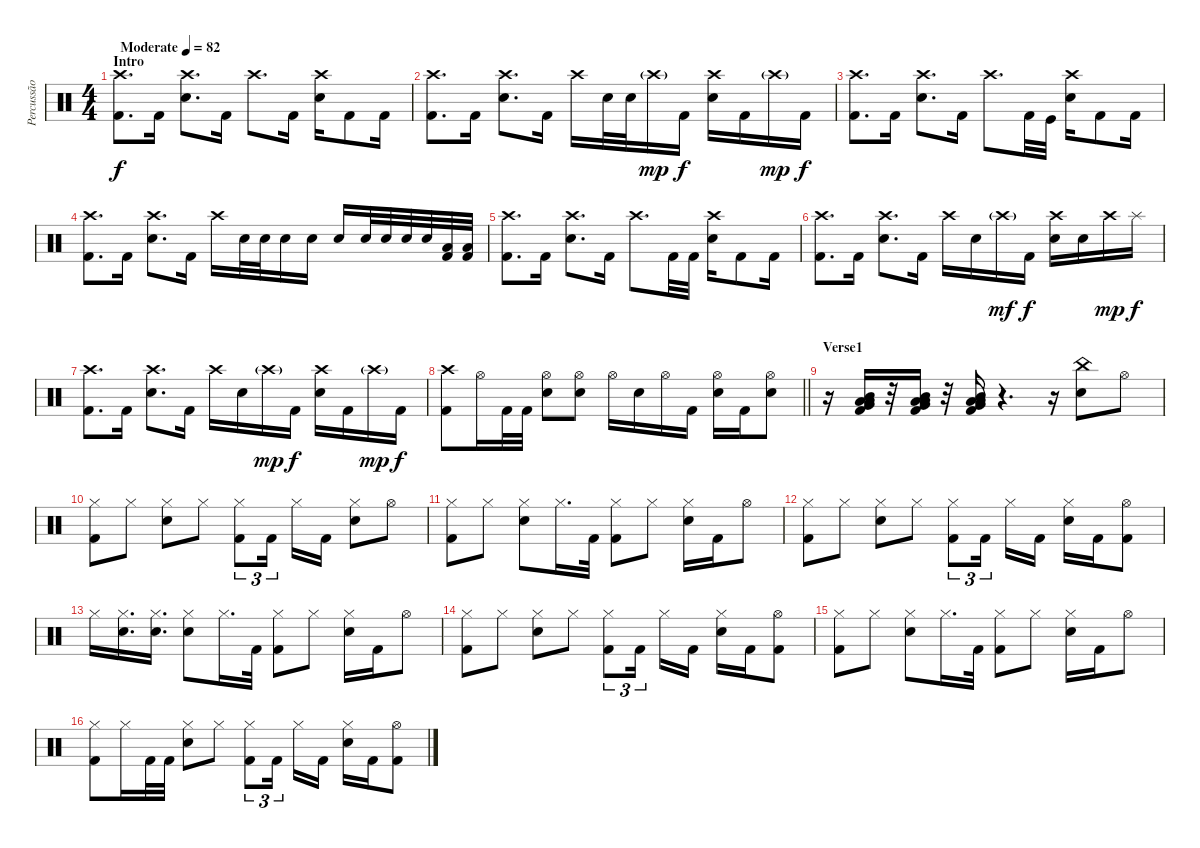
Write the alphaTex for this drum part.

\track ("Percussão" "Percussão") {instrument percussion}
\staff {score}
\articulation defaults
\ts (4 4)
\section ("" "Intro")
\tempo (82 "Moderate")
\clef neutral
\ks c
("Kick (hit) 2" "Crash high (hit)").8{d dy f} "Kick (hit) 2".16 ("Electric Snare (hit)" "Crash high (hit)").8{d} "Kick (hit) 2".16 "Crash high (hit)".8{d} "Kick (hit) 2".16 ("Electric Snare (hit)" "Crash high (hit)").16 "Kick (hit) 2".8 "Kick (hit) 2".16 |
("Kick (hit) 2" "Crash high (hit)").8{d} "Kick (hit) 2".16 ("Electric Snare (hit)" "Crash high (hit)").8{d} "Kick (hit) 2".16 "Crash high (hit)".16 "Electric Snare (hit)".32 "Electric Snare (hit)".32 "Crash high (hit)"{g}.16{dy mp} "Kick (hit) 2".16{dy f} ("Crash high (hit)" "Electric Snare (hit)").16 "Kick (hit) 2".16 "Crash high (hit)"{g}.16{dy mp} "Kick (hit) 2".16{dy f} |
("Kick (hit) 2" "Crash high (hit)").8{d} "Kick (hit) 2".16 ("Electric Snare (hit)" "Crash high (hit)").8{d} "Kick (hit) 2".16 "Crash high (hit)".8{d} "Kick (hit) 2".32 "Kick (hit)".32 ("Electric Snare (hit)" "Crash high (hit)").16 "Kick (hit) 2".8 "Kick (hit) 2".16 |
("Kick (hit) 2" "Crash high (hit)").8{d} "Kick (hit) 2".16 ("Electric Snare (hit)" "Crash high (hit)").8{d} "Kick (hit) 2".16 "Crash high (hit)".16 "Electric Snare (hit)".32 "Electric Snare (hit)".32 "Electric Snare (hit)".16 "Electric Snare (hit)".16 "Electric Snare (hit)".16 "Electric Snare (hit)".32 "Electric Snare (hit)".32 "Electric Snare (hit)".32 "Electric Snare (hit)".32 ("Low Tom (hit)" "Kick (hit) 2").32 ("Low Tom (hit)" "Kick (hit) 2").32 |
("Kick (hit) 2" "Crash high (hit)").8{d} "Kick (hit) 2".16 ("Electric Snare (hit)" "Crash high (hit)").8{d} "Kick (hit) 2".16 "Crash high (hit)".8{d} "Kick (hit) 2".32 "Kick (hit) 2".32 ("Electric Snare (hit)" "Crash high (hit)").16 "Kick (hit) 2".8 "Kick (hit) 2".16 |
("Kick (hit) 2" "Crash high (hit)").8{d} "Kick (hit) 2".16 ("Electric Snare (hit)" "Crash high (hit)").8{d} "Kick (hit) 2".16 "Crash high (hit)".16 "Electric Snare (hit)".16 "Crash high (hit)"{g}.16{dy mf} "Kick (hit) 2".16{dy f} ("Crash high (hit)" "Electric Snare (hit)").16 "Electric Snare (hit)".16 "Crash high (hit)".16{dy mp} "Splash (hit)".16{dy f} |
("Kick (hit) 2" "Crash high (hit)").8{d} "Kick (hit) 2".16 ("Electric Snare (hit)" "Crash high (hit)").8{d} "Kick (hit) 2".16 "Crash high (hit)".16 "Electric Snare (hit)".16 "Crash high (hit)"{g}.16{dy mp} "Kick (hit) 2".16{dy f} ("Crash high (hit)" "Electric Snare (hit)").16 "Kick (hit) 2".16 "Crash high (hit)"{g}.16{dy mp} "Kick (hit) 2".16{dy f} |
\barLineRight lightlight
("Crash high (hit)" "Kick (hit) 2").8 "Hi-Hat (open)".16 "Kick (hit) 2".32 "Kick (hit) 2".32 ("Hi-Hat (open)" "Electric Snare (hit)").8 ("Electric Snare (hit)" "Hi-Hat (open)").8 "Hi-Hat (open)".16 "Electric Snare (hit)".16 "Hi-Hat (open)".16 "Kick (hit) 2".16 ("Hi-Hat (open)" "Electric Snare (hit)").16 "Kick (hit) 2".16 ("Electric Snare (hit)" "Hi-Hat (open)").8 |
\section ("" "Verse1")
r.16 ("Kick (hit) 2" "Low Tom (hit)" "Very Low Tom (hit)" "Low Floor Tom (hit)" "Mid Tom (hit)").16 r.32 ("Kick (hit) 2" "Low Tom (hit)" "Very Low Tom (hit)" "Low Floor Tom (hit)" "Mid Tom (hit)").16 r.32 ("Kick (hit) 2" "Low Tom (hit)" "Very Low Tom (hit)" "Low Floor Tom (hit)" "Mid Tom (hit)").16 r.4{d} r.16 ("Electric Snare (hit)" "China (hit)").8 "Hi-Hat (open)".8 |
("Hi-Hat (closed)" "Kick (hit) 2").8 "Hi-Hat (closed)".8 ("Hi-Hat (closed)" "Electric Snare (hit)").8 "Hi-Hat (closed)".8 ("Hi-Hat (closed)" "Kick (hit) 2").8{tu (3 2)} "Kick (hit) 2".16{tu (3 2) beam splitsecondary} "Hi-Hat (closed)".16 "Kick (hit) 2".16 ("Electric Snare (hit)" "Hi-Hat (closed)").8 "Hi-Hat (open)".8 |
("Hi-Hat (closed)" "Kick (hit) 2").8 "Hi-Hat (closed)".8 ("Hi-Hat (closed)" "Electric Snare (hit)").8 "Hi-Hat (closed)".16{d} "Kick (hit) 2".32 ("Kick (hit) 2" "Hi-Hat (closed)").8 "Hi-Hat (closed)".8 ("Hi-Hat (closed)" "Electric Snare (hit)").16 "Kick (hit) 2".16 "Hi-Hat (open)".8 |
("Hi-Hat (closed)" "Kick (hit) 2").8 "Hi-Hat (closed)".8 ("Hi-Hat (closed)" "Electric Snare (hit)").8 "Hi-Hat (closed)".8 ("Hi-Hat (closed)" "Kick (hit) 2").8{tu (3 2)} "Kick (hit) 2".16{tu (3 2) beam splitsecondary} "Hi-Hat (closed)".16 "Kick (hit) 2".16 ("Electric Snare (hit)" "Hi-Hat (closed)").16 "Kick (hit) 2".16 ("Kick (hit) 2" "Hi-Hat (open)").8 |
"Hi-Hat (closed)".16 ("Electric Snare (hit)" "Hi-Hat (closed)").16{d} ("Electric Snare (hit)" "Hi-Hat (closed)").16{d} ("Electric Snare (hit)" "Hi-Hat (closed)").8 "Hi-Hat (closed)".16{d} "Kick (hit) 2".32 ("Kick (hit) 2" "Hi-Hat (closed)").8 "Hi-Hat (closed)".8 ("Hi-Hat (closed)" "Electric Snare (hit)").16 "Kick (hit) 2".16 "Hi-Hat (open)".8 |
("Hi-Hat (closed)" "Kick (hit) 2").8 "Hi-Hat (closed)".8 ("Hi-Hat (closed)" "Electric Snare (hit)").8 "Hi-Hat (closed)".8 ("Hi-Hat (closed)" "Kick (hit) 2").8{tu (3 2)} "Kick (hit) 2".16{tu (3 2) beam splitsecondary} "Hi-Hat (closed)".16 "Kick (hit) 2".16 ("Electric Snare (hit)" "Hi-Hat (closed)").16 "Kick (hit) 2".16 ("Kick (hit) 2" "Hi-Hat (open)").8 |
("Hi-Hat (closed)" "Kick (hit) 2").8 "Hi-Hat (closed)".8 ("Hi-Hat (closed)" "Electric Snare (hit)").8 "Hi-Hat (closed)".16{d} "Kick (hit) 2".32 ("Kick (hit) 2" "Hi-Hat (closed)").8 "Hi-Hat (closed)".8 ("Hi-Hat (closed)" "Electric Snare (hit)").16 "Kick (hit) 2".16 "Hi-Hat (open)".8 |
("Hi-Hat (closed)" "Kick (hit) 2").8 "Hi-Hat (closed)".16 "Kick (hit) 2".32 "Kick (hit) 2".32 ("Hi-Hat (closed)" "Electric Snare (hit)").8 "Hi-Hat (closed)".8 ("Hi-Hat (closed)" "Kick (hit) 2").8{tu (3 2)} "Kick (hit) 2".16{tu (3 2) beam splitsecondary} "Hi-Hat (closed)".16 "Kick (hit) 2".16 ("Electric Snare (hit)" "Hi-Hat (closed)").16 "Kick (hit) 2".16 ("Kick (hit) 2" "Hi-Hat (open)").8
